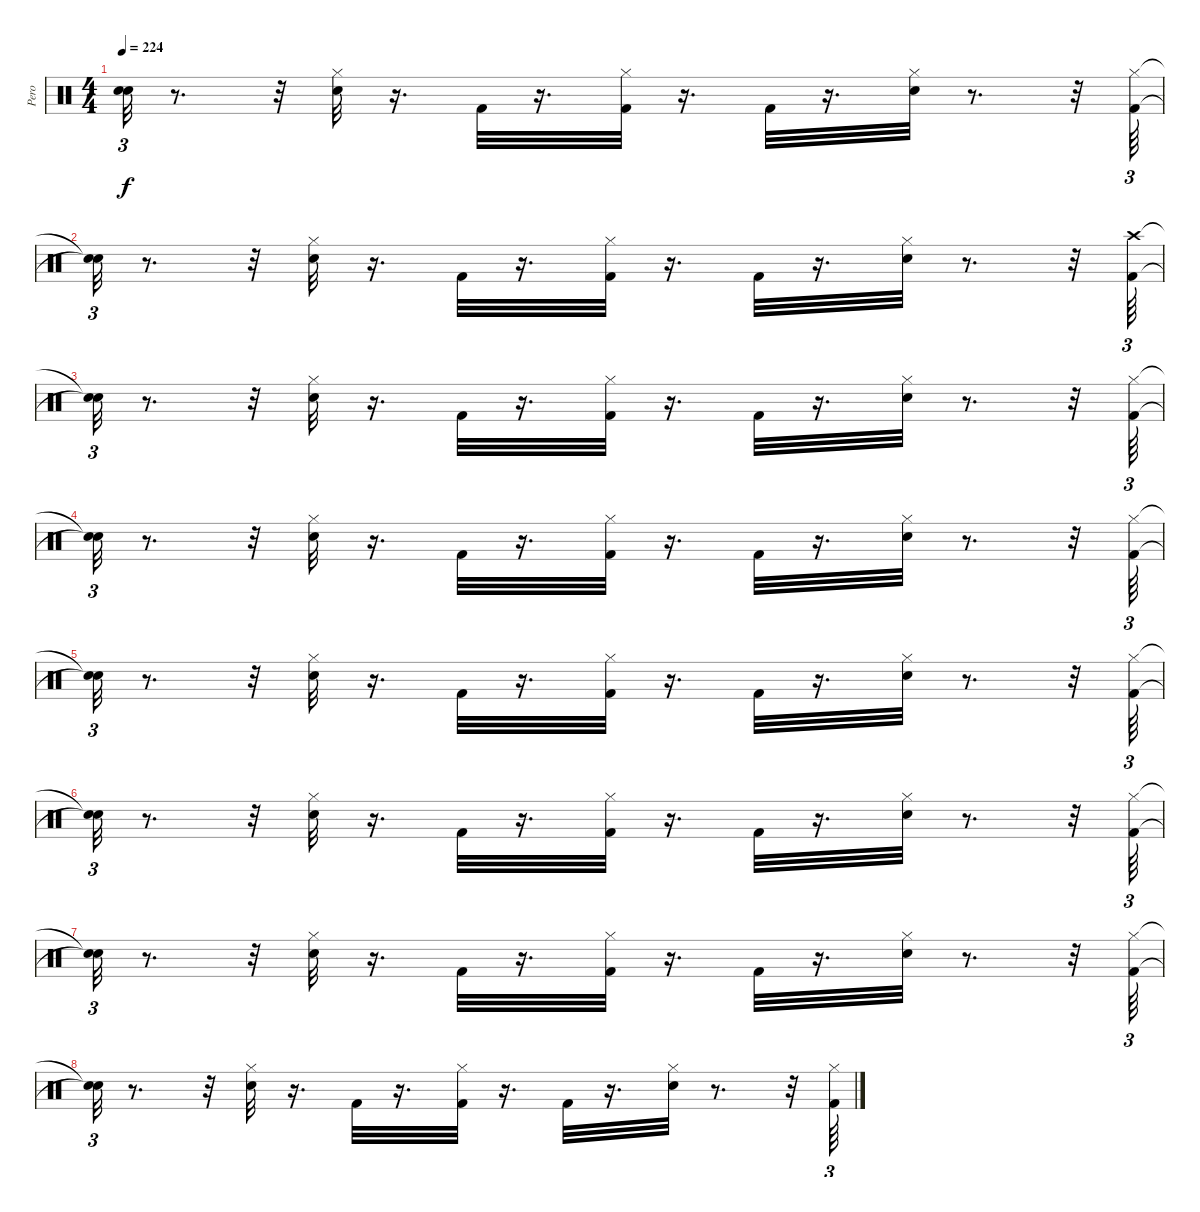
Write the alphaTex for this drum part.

\track ("Pero" "Pero") {instrument percussion}
\staff {score}
\articulation defaults
\ts (4 4)
\tempo 224
\clef neutral
\ks c
("Snare (hit)"{t} "Snare (hit)"{t}).32{tu (3 2) dy f} r.8{d} r.32 ("Hi-Hat (closed)" "Snare (hit) 2").32 r.16{d} "Kick (hit) 2".32 r.16{d} ("Hi-Hat (closed)" "Kick (hit) 2").32 r.16{d} "Kick (hit) 2".32 r.16{d} ("Hi-Hat (closed)" "Snare (hit) 2").32 r.8{d} r.32 ("Kick (hit) 2" "Hi-Hat (closed)").64{tu (3 2)} |
("Snare (hit)"{t} "Snare (hit)"{t}).32{tu (3 2)} r.8{d} r.32 ("Hi-Hat (closed)" "Snare (hit) 2").32 r.16{d} "Kick (hit) 2".32 r.16{d} ("Hi-Hat (closed)" "Kick (hit) 2").32 r.16{d} "Kick (hit) 2".32 r.16{d} ("Hi-Hat (closed)" "Snare (hit) 2").32 r.8{d} r.32 ("Crash high (hit)" "Kick (hit) 2").64{tu (3 2)} |
("Snare (hit)"{t} "Snare (hit)"{t}).32{tu (3 2)} r.8{d} r.32 ("Hi-Hat (closed)" "Snare (hit) 2").32 r.16{d} "Kick (hit) 2".32 r.16{d} ("Hi-Hat (closed)" "Kick (hit) 2").32 r.16{d} "Kick (hit) 2".32 r.16{d} ("Hi-Hat (closed)" "Snare (hit) 2").32 r.8{d} r.32 ("Kick (hit) 2" "Hi-Hat (closed)").64{tu (3 2)} |
("Snare (hit)"{t} "Snare (hit)"{t}).32{tu (3 2)} r.8{d} r.32 ("Hi-Hat (closed)" "Snare (hit) 2").32 r.16{d} "Kick (hit) 2".32 r.16{d} ("Hi-Hat (closed)" "Kick (hit) 2").32 r.16{d} "Kick (hit) 2".32 r.16{d} ("Hi-Hat (closed)" "Snare (hit) 2").32 r.8{d} r.32 ("Kick (hit) 2" "Hi-Hat (closed)").64{tu (3 2)} |
("Snare (hit)"{t} "Snare (hit)"{t}).32{tu (3 2)} r.8{d} r.32 ("Hi-Hat (closed)" "Snare (hit) 2").32 r.16{d} "Kick (hit) 2".32 r.16{d} ("Hi-Hat (closed)" "Kick (hit) 2").32 r.16{d} "Kick (hit) 2".32 r.16{d} ("Hi-Hat (closed)" "Snare (hit) 2").32 r.8{d} r.32 ("Kick (hit) 2" "Hi-Hat (closed)").64{tu (3 2)} |
("Snare (hit)"{t} "Snare (hit)"{t}).32{tu (3 2)} r.8{d} r.32 ("Hi-Hat (closed)" "Snare (hit) 2").32 r.16{d} "Kick (hit) 2".32 r.16{d} ("Hi-Hat (closed)" "Kick (hit) 2").32 r.16{d} "Kick (hit) 2".32 r.16{d} ("Hi-Hat (closed)" "Snare (hit) 2").32 r.8{d} r.32 ("Kick (hit) 2" "Hi-Hat (closed)").64{tu (3 2)} |
("Snare (hit)"{t} "Snare (hit)"{t}).32{tu (3 2)} r.8{d} r.32 ("Hi-Hat (closed)" "Snare (hit) 2").32 r.16{d} "Kick (hit) 2".32 r.16{d} ("Hi-Hat (closed)" "Kick (hit) 2").32 r.16{d} "Kick (hit) 2".32 r.16{d} ("Hi-Hat (closed)" "Snare (hit) 2").32 r.8{d} r.32 ("Kick (hit) 2" "Hi-Hat (closed)").64{tu (3 2)} |
("Snare (hit)"{t} "Snare (hit)"{t}).32{tu (3 2)} r.8{d} r.32 ("Hi-Hat (closed)" "Snare (hit) 2").32 r.16{d} "Kick (hit) 2".32 r.16{d} ("Hi-Hat (closed)" "Kick (hit) 2").32 r.16{d} "Kick (hit) 2".32 r.16{d} ("Hi-Hat (closed)" "Snare (hit) 2").32 r.8{d} r.32 ("Kick (hit) 2" "Hi-Hat (closed)").64{tu (3 2)}
